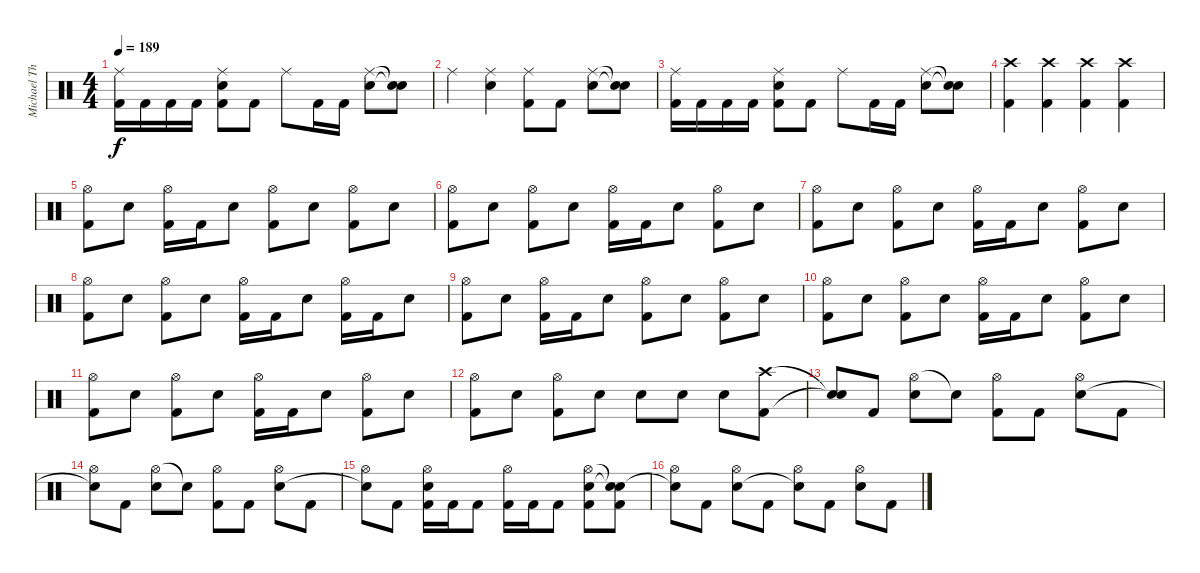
\track ("Michael Thomas" "Michael Th") {instrument percussion}
\staff {score}
\articulation defaults
\ts (4 4)
\tempo 189
\clef neutral
\ks c
("Ride (middle)" "Kick (hit) 2").16{dy f} "Kick (hit) 2".16 "Kick (hit) 2".16 "Kick (hit) 2".16 ("Ride (middle)" "Electric Snare (hit)" "Kick (hit) 2").8 "Kick (hit) 2".8 "Ride (middle)".8 "Kick (hit) 2".16 "Kick (hit) 2".16 ("Ride (middle)" "Electric Snare (hit)").8 ("Snare (hit)"{t} "Snare (hit)"{t}).8 |
"Ride (middle)".4 ("Ride (middle)" "Electric Snare (hit)").4 ("Ride (middle)" "Kick (hit) 2").8 "Kick (hit) 2".8 ("Ride (middle)" "Electric Snare (hit)").8 ("Snare (hit)"{t} "Snare (hit)"{t}).8 |
("Ride (middle)" "Kick (hit) 2").16 "Kick (hit) 2".16 "Kick (hit) 2".16 "Kick (hit) 2".16 ("Ride (middle)" "Electric Snare (hit)" "Kick (hit) 2").8 "Kick (hit) 2".8 "Ride (middle)".8 "Kick (hit) 2".16 "Kick (hit) 2".16 ("Ride (middle)" "Electric Snare (hit)").8 ("Snare (hit)"{t} "Snare (hit)"{t}).8 |
("Crash high (hit)" "Kick (hit) 2").4 ("Crash high (hit)" "Kick (hit) 2").4 ("Crash high (hit)" "Kick (hit) 2").4 ("Crash high (hit)" "Kick (hit) 2").4 |
("Hi-Hat (open)" "Kick (hit) 2").8 "Electric Snare (hit)".8 ("Hi-Hat (open)" "Kick (hit) 2").16 "Kick (hit) 2".16 "Electric Snare (hit)".8 ("Hi-Hat (open)" "Kick (hit) 2").8 "Electric Snare (hit)".8 ("Hi-Hat (open)" "Kick (hit) 2").8 "Electric Snare (hit)".8 |
("Hi-Hat (open)" "Kick (hit) 2").8 "Electric Snare (hit)".8 ("Hi-Hat (open)" "Kick (hit) 2").8 "Electric Snare (hit)".8 ("Hi-Hat (open)" "Kick (hit) 2").16 "Kick (hit) 2".16 "Electric Snare (hit)".8 ("Hi-Hat (open)" "Kick (hit) 2").8 "Electric Snare (hit)".8 |
("Hi-Hat (open)" "Kick (hit) 2").8 "Electric Snare (hit)".8 ("Hi-Hat (open)" "Kick (hit) 2").8 "Electric Snare (hit)".8 ("Hi-Hat (open)" "Kick (hit) 2").16 "Kick (hit) 2".16 "Electric Snare (hit)".8 ("Hi-Hat (open)" "Kick (hit) 2").8 "Electric Snare (hit)".8 |
("Hi-Hat (open)" "Kick (hit) 2").8 "Electric Snare (hit)".8 ("Hi-Hat (open)" "Kick (hit) 2").8 "Electric Snare (hit)".8 ("Hi-Hat (open)" "Kick (hit) 2").16 "Kick (hit) 2".16 "Electric Snare (hit)".8 ("Hi-Hat (open)" "Kick (hit) 2").16 "Kick (hit) 2".16 "Electric Snare (hit)".8 |
("Hi-Hat (open)" "Kick (hit) 2").8 "Electric Snare (hit)".8 ("Hi-Hat (open)" "Kick (hit) 2").16 "Kick (hit) 2".16 "Electric Snare (hit)".8 ("Hi-Hat (open)" "Kick (hit) 2").8 "Electric Snare (hit)".8 ("Hi-Hat (open)" "Kick (hit) 2").8 "Electric Snare (hit)".8 |
("Hi-Hat (open)" "Kick (hit) 2").8 "Electric Snare (hit)".8 ("Hi-Hat (open)" "Kick (hit) 2").8 "Electric Snare (hit)".8 ("Hi-Hat (open)" "Kick (hit) 2").16 "Kick (hit) 2".16 "Electric Snare (hit)".8 ("Hi-Hat (open)" "Kick (hit) 2").8 "Electric Snare (hit)".8 |
("Hi-Hat (open)" "Kick (hit) 2").8 "Electric Snare (hit)".8 ("Hi-Hat (open)" "Kick (hit) 2").8 "Electric Snare (hit)".8 ("Hi-Hat (open)" "Kick (hit) 2").16 "Kick (hit) 2".16 "Electric Snare (hit)".8 ("Hi-Hat (open)" "Kick (hit) 2").8 "Electric Snare (hit)".8 |
("Hi-Hat (open)" "Kick (hit) 2").8 "Electric Snare (hit)".8 ("Hi-Hat (open)" "Kick (hit) 2").8 "Electric Snare (hit)".8 "Electric Snare (hit)".8 "Electric Snare (hit)".8 "Electric Snare (hit)".8 ("Crash high (hit)" "Kick (hit) 2").8 |
("Snare (hit)"{t} "Snare (hit)"{t}).8 "Kick (hit) 2".8 ("Hi-Hat (open)" "Electric Snare (hit)").8 "Snare (hit)"{t}.8 ("Hi-Hat (open)" "Kick (hit) 2").8 "Kick (hit) 2".8 ("Hi-Hat (open)" "Electric Snare (hit)").8 "Kick (hit) 2".8 |
("Hi-Hat (open)" "Snare (hit)"{t}).8 "Kick (hit) 2".8 ("Hi-Hat (open)" "Electric Snare (hit)").8 "Snare (hit)"{t}.8 ("Hi-Hat (open)" "Kick (hit) 2").8 "Kick (hit) 2".8 ("Hi-Hat (open)" "Electric Snare (hit)").8 "Kick (hit) 2".8 |
("Hi-Hat (open)" "Snare (hit)"{t}).8 "Kick (hit) 2".8 ("Hi-Hat (open)" "Electric Snare (hit)" "Kick (hit) 2").16 "Kick (hit) 2".16 "Kick (hit) 2".8 ("Hi-Hat (open)" "Kick (hit) 2").16 "Kick (hit) 2".16 "Kick (hit) 2".8 ("Hi-Hat (open)" "Electric Snare (hit)" "Kick (hit) 2").8 ("Snare (hit)"{t} "Snare (hit)"{t} "Kick (hit) 2").8 |
("Hi-Hat (open)" "Snare (hit)"{t}).8 "Kick (hit) 2".8 ("Hi-Hat (open)" "Electric Snare (hit)").8 "Kick (hit) 2".8 ("Hi-Hat (open)" "Snare (hit)"{t}).8 "Kick (hit) 2".8 ("Hi-Hat (open)" "Electric Snare (hit)").8 "Kick (hit) 2".8
